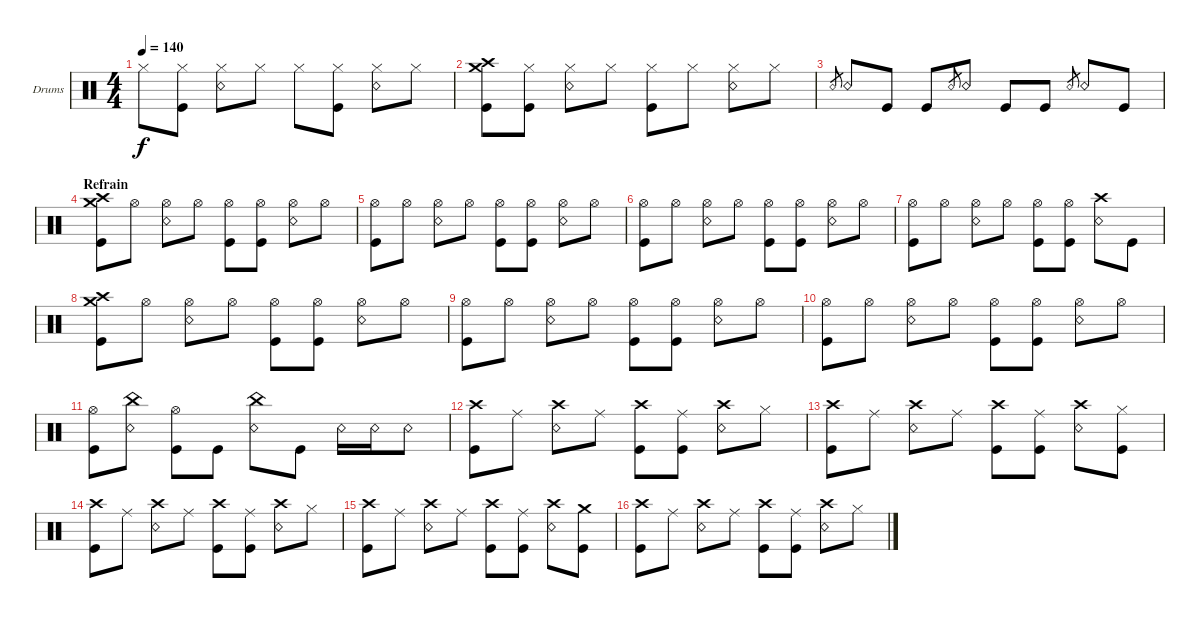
\bracketExtendMode groupsimilarinstruments
\firstSystemTrackNameOrientation horizontal
\otherSystemsTrackNameOrientation horizontal
\track ("Drumkit" "Drums") {instrument percussion}
\staff {score}
\articulation defaults
\ts (4 4)
\tempo 140
\clef neutral
\ks c "Hi-Hat (closed)".8{dy f}
("Hi-Hat (closed)" "Kick (hit)").8 ("Hi-Hat (closed)" "Snare (rim shot)").8 "Hi-Hat (closed)".8 "Hi-Hat (closed)".8 ("Hi-Hat (closed)" "Kick (hit)").8 ("Hi-Hat (closed)" "Snare (rim shot)").8 "Hi-Hat (closed)".8 |
("Kick (hit)" "Crash high (hit)" "Crash medium (hit)").8 ("Hi-Hat (closed)" "Kick (hit)").8 ("Hi-Hat (closed)" "Snare (rim shot)").8 "Hi-Hat (closed)".8 ("Hi-Hat (closed)" "Kick (hit)").8 "Hi-Hat (closed)".8 ("Hi-Hat (closed)" "Snare (rim shot)").8 "Hi-Hat (closed)".8 |
"Snare (rim shot)".8{gr} "Snare (rim shot)".8 "Kick (hit)".8 "Kick (hit)".8 "Snare (rim shot)".8{gr} "Snare (rim shot)".8 "Kick (hit)".8 "Kick (hit)".8 "Snare (rim shot)".8{gr} "Snare (rim shot)".8 "Kick (hit)".8 |
\section ("" "Refrain")
("Kick (hit)" "Crash medium (hit)" "Crash high (hit)").8 "Hi-Hat (open)".8 ("Hi-Hat (open)" "Snare (rim shot)").8 "Hi-Hat (open)".8 ("Hi-Hat (open)" "Kick (hit)").8 ("Hi-Hat (open)" "Kick (hit)").8 ("Snare (rim shot)" "Hi-Hat (open)").8 "Hi-Hat (open)".8 |
("Kick (hit)" "Hi-Hat (open)").8 "Hi-Hat (open)".8 ("Hi-Hat (open)" "Snare (rim shot)").8 "Hi-Hat (open)".8 ("Hi-Hat (open)" "Kick (hit)").8 ("Hi-Hat (open)" "Kick (hit)").8 ("Snare (rim shot)" "Hi-Hat (open)").8 "Hi-Hat (open)".8 |
("Kick (hit)" "Hi-Hat (open)").8 "Hi-Hat (open)".8 ("Hi-Hat (open)" "Snare (rim shot)").8 "Hi-Hat (open)".8 ("Hi-Hat (open)" "Kick (hit)").8 ("Hi-Hat (open)" "Kick (hit)").8 ("Snare (rim shot)" "Hi-Hat (open)").8 "Hi-Hat (open)".8 |
("Kick (hit)" "Hi-Hat (open)").8 "Hi-Hat (open)".8 ("Hi-Hat (open)" "Snare (rim shot)").8 "Hi-Hat (open)".8 ("Hi-Hat (open)" "Kick (hit)").8 ("Hi-Hat (open)" "Kick (hit)").8 ("Snare (rim shot)" "Crash high (hit)").8 "Kick (hit)".8 |
("Kick (hit)" "Crash medium (hit)" "Crash high (hit)").8 "Hi-Hat (open)".8 ("Hi-Hat (open)" "Snare (rim shot)").8 "Hi-Hat (open)".8 ("Hi-Hat (open)" "Kick (hit)").8 ("Hi-Hat (open)" "Kick (hit)").8 ("Snare (rim shot)" "Hi-Hat (open)").8 "Hi-Hat (open)".8 |
("Kick (hit)" "Hi-Hat (open)").8 "Hi-Hat (open)".8 ("Hi-Hat (open)" "Snare (rim shot)").8 "Hi-Hat (open)".8 ("Hi-Hat (open)" "Kick (hit)").8 ("Hi-Hat (open)" "Kick (hit)").8 ("Snare (rim shot)" "Hi-Hat (open)").8 "Hi-Hat (open)".8 |
("Kick (hit)" "Hi-Hat (open)").8 "Hi-Hat (open)".8 ("Hi-Hat (open)" "Snare (rim shot)").8 "Hi-Hat (open)".8 ("Hi-Hat (open)" "Kick (hit)").8 ("Hi-Hat (open)" "Kick (hit)").8 ("Snare (rim shot)" "Hi-Hat (open)").8 "Hi-Hat (open)".8 |
("Kick (hit)" "Hi-Hat (open)").8 ("Snare (rim shot)" "China (hit)").8 ("Kick (hit)" "Hi-Hat (open)").8 "Kick (hit)".8 ("Snare (rim shot)" "China (hit)").8 "Kick (hit)".8 "Snare (rim shot)".16 "Snare (rim shot)".16 "Snare (rim shot)".8 |
("Kick (hit)" "Crash high (hit)").8 "Ride (middle)".8 ("Crash high (hit)" "Snare (rim shot)").8 "Ride (middle)".8 ("Crash high (hit)" "Kick (hit)").8 ("Kick (hit)" "Ride (middle)").8 ("Crash high (hit)" "Snare (rim shot)").8 "Hi-Hat (closed)".8 |
("Kick (hit)" "Crash high (hit)").8 "Ride (middle)".8 ("Crash high (hit)" "Snare (rim shot)").8 "Ride (middle)".8 ("Crash high (hit)" "Kick (hit)").8 ("Kick (hit)" "Ride (middle)").8 ("Crash high (hit)" "Snare (rim shot)").8 ("Hi-Hat (closed)" "Kick (hit)").8 |
("Kick (hit)" "Crash high (hit)").8 "Ride (middle)".8 ("Crash high (hit)" "Snare (rim shot)").8 "Ride (middle)".8 ("Crash high (hit)" "Kick (hit)").8 ("Kick (hit)" "Ride (middle)").8 ("Crash high (hit)" "Snare (rim shot)").8 "Hi-Hat (closed)".8 |
("Kick (hit)" "Crash high (hit)").8 "Ride (middle)".8 ("Crash high (hit)" "Snare (rim shot)").8 "Ride (middle)".8 ("Crash high (hit)" "Kick (hit)").8 ("Kick (hit)" "Ride (middle)").8 ("Crash high (hit)" "Snare (rim shot)").8 ("Kick (hit)" "Crash medium (hit)").8 |
("Kick (hit)" "Crash high (hit)").8 "Ride (middle)".8 ("Crash high (hit)" "Snare (rim shot)").8 "Ride (middle)".8 ("Crash high (hit)" "Kick (hit)").8 ("Kick (hit)" "Ride (middle)").8 ("Crash high (hit)" "Snare (rim shot)").8 "Hi-Hat (closed)".8
